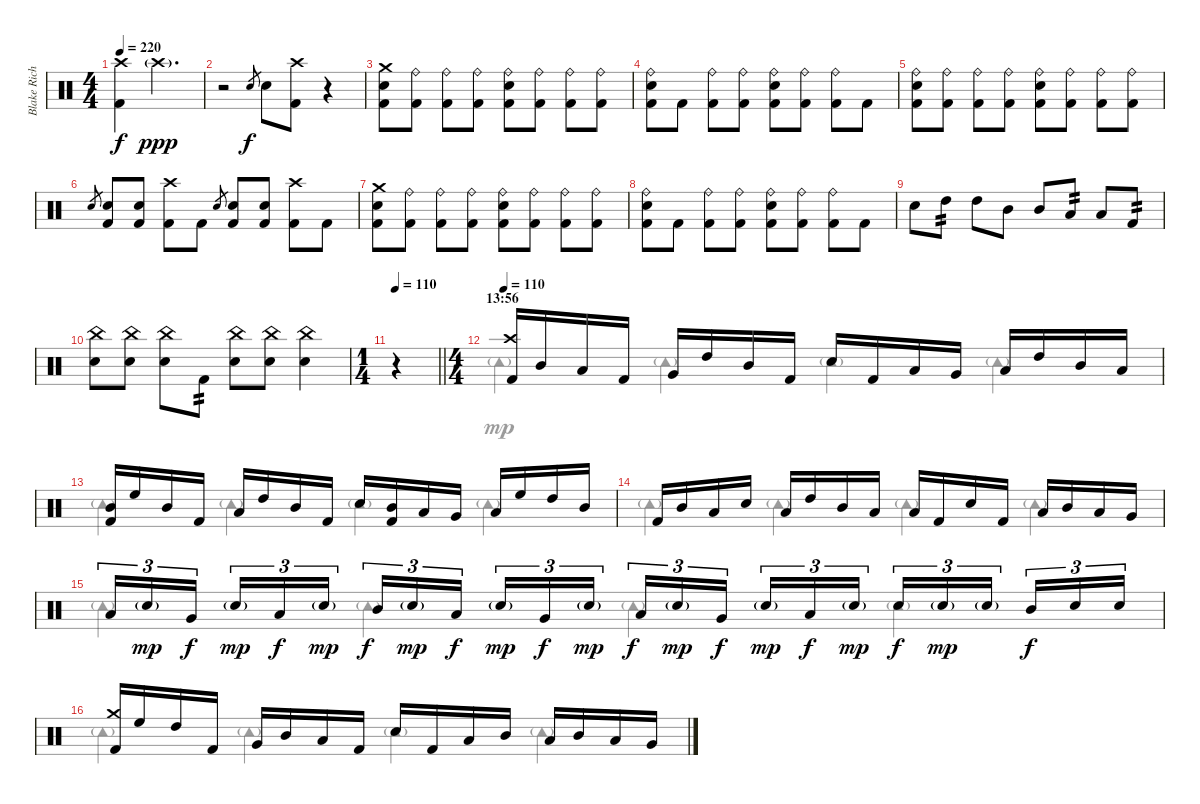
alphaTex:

\track ("Blake Richardson" "Blake Rich") {instrument percussion}
\staff {score}
\articulation defaults
\voice
\ts (4 4)
\tempo 220
\clef neutral
\ks c
("Crash high (hit)" "Kick (hit) 2").4{dy f} "Crash high (hit)"{g}.2{d dy ppp volume 0} |
r.2{volume 13} "Electric Snare (hit)".8{gr dy f} "Electric Snare (hit)".8 ("Crash high (hit)" "Kick (hit) 2").8 r.4 |
("Crash medium (hit)" "Electric Snare (hit)" "Kick (hit) 2").8 ("Ride (bell)" "Kick (hit) 2").8 ("Ride (bell)" "Kick (hit) 2").8 ("Ride (bell)" "Kick (hit) 2").8 ("Ride (bell)" "Electric Snare (hit)" "Kick (hit) 2").8 ("Ride (bell)" "Kick (hit) 2").8 ("Ride (bell)" "Kick (hit) 2").8 ("Ride (bell)" "Kick (hit) 2").8 |
("Ride (bell)" "Electric Snare (hit)" "Kick (hit) 2").8 "Kick (hit) 2".8 ("Ride (bell)" "Kick (hit) 2").8 ("Ride (bell)" "Kick (hit) 2").8 ("Ride (bell)" "Electric Snare (hit)" "Kick (hit) 2").8 ("Ride (bell)" "Kick (hit) 2").8 ("Ride (bell)" "Kick (hit) 2").8 "Kick (hit) 2".8 |
("Ride (bell)" "Electric Snare (hit)" "Kick (hit) 2").8 ("Ride (bell)" "Kick (hit) 2").8 ("Ride (bell)" "Kick (hit) 2").8 ("Ride (bell)" "Kick (hit) 2").8 ("Ride (bell)" "Electric Snare (hit)" "Kick (hit) 2").8 ("Ride (bell)" "Kick (hit) 2").8 ("Ride (bell)" "Kick (hit) 2").8 ("Ride (bell)" "Kick (hit) 2").8 |
"Electric Snare (hit)".8{gr} ("Electric Snare (hit)" "Kick (hit) 2").8 ("Electric Snare (hit)" "Kick (hit) 2").8 ("Crash high (hit)" "Kick (hit) 2").8 "Kick (hit) 2".8 "Electric Snare (hit)".8{gr} ("Electric Snare (hit)" "Kick (hit) 2").8 ("Electric Snare (hit)" "Kick (hit) 2").8 ("Crash high (hit)" "Kick (hit) 2").8 "Kick (hit) 2".8 |
("Crash medium (hit)" "Electric Snare (hit)" "Kick (hit) 2").8 ("Ride (bell)" "Kick (hit) 2").8 ("Ride (bell)" "Kick (hit) 2").8 ("Ride (bell)" "Kick (hit) 2").8 ("Ride (bell)" "Electric Snare (hit)" "Kick (hit) 2").8 ("Ride (bell)" "Kick (hit) 2").8 ("Ride (bell)" "Kick (hit) 2").8 ("Ride (bell)" "Kick (hit) 2").8 |
("Ride (bell)" "Electric Snare (hit)" "Kick (hit) 2").8 "Kick (hit) 2".8 ("Ride (bell)" "Kick (hit) 2").8 ("Ride (bell)" "Kick (hit) 2").8 ("Ride (bell)" "Electric Snare (hit)" "Kick (hit) 2").8 ("Ride (bell)" "Kick (hit) 2").8 ("Ride (bell)" "Kick (hit) 2").8 "Kick (hit) 2".8 |
"Electric Snare (hit)".8 "High Tom (hit)".8{tp 2} "High Tom (hit)".8 "Mid Tom (hit)".8 "Mid Tom (hit)".8 "Low Tom (hit)".8{tp 2} "Low Tom (hit)".8 "Kick (hit) 2".8{tp 2} |
("China (hit)" "Electric Snare (hit)").8 ("China (hit)" "Electric Snare (hit)").8 ("China (hit)" "Electric Snare (hit)").8 "Kick (hit) 2".8{tp 2} ("China (hit)" "Electric Snare (hit)").8 ("China (hit)" "Electric Snare (hit)").8 ("China (hit)" "Electric Snare (hit)").4 |
\ts (1 4)
\tempo 110
\barLineRight lightlight
r.4{volume 0} |
\ts (4 4)
\section ("" "13:56")
\tempo 110
("Crash high (hit)" "Kick (hit) 2").16{volume 10} "Mid Tom (hit)".16 "Low Floor Tom (hit)".16 "Kick (hit) 2".16 "Very Low Tom (hit)".16 "High Tom (hit)".16 "Mid Tom (hit)".16 "Kick (hit) 2".16 "Electric Snare (hit)".16 "Kick (hit) 2".16 "Low Floor Tom (hit)".16 "Very Low Tom (hit)".16 "Low Floor Tom (hit)".16 "High Tom (hit)".16 "Mid Tom (hit)".16 "Low Tom (hit)".16 |
("Mid Tom (hit)" "Kick (hit) 2").16 "High Floor Tom (hit)".16 "Mid Tom (hit)".16 "Kick (hit) 2".16 "Low Floor Tom (hit)".16 "High Tom (hit)".16 "Mid Tom (hit)".16 "Kick (hit) 2".16 "Electric Snare (hit)".16 ("Mid Tom (hit)" "Kick (hit) 2").16 "Low Tom (hit)".16 "Very Low Tom (hit)".16 "Low Floor Tom (hit)".16 "High Floor Tom (hit)".16 "High Tom (hit)".16 "Mid Tom (hit)".16 |
"Kick (hit) 2".16 "Mid Tom (hit)".16 "Low Tom (hit)".16 "Electric Snare (hit)".16 "Low Tom (hit)".16 "High Tom (hit)".16 "Mid Tom (hit)".16 "Low Tom (hit)".16 "Low Floor Tom (hit)".16 "Kick (hit) 2".16 "Electric Snare (hit)".16 "Kick (hit) 2".16 "Low Tom (hit)".16 "Mid Tom (hit)".16 "Low Tom (hit)".16 "Very Low Tom (hit)".16 |
"Low Floor Tom (hit)".16{tu (3 2)} "Electric Snare (hit)"{g}.16{tu (3 2) dy mp} "Very Low Tom (hit)".16{tu (3 2) dy f beam splitsecondary} "Electric Snare (hit)"{g}.16{tu (3 2) dy mp} "Low Tom (hit)".16{tu (3 2) dy f} "Electric Snare (hit)"{g}.16{tu (3 2) dy mp} "Mid Tom (hit)".16{tu (3 2) dy f} "Electric Snare (hit)"{g}.16{tu (3 2) dy mp} "Low Tom (hit)".16{tu (3 2) dy f beam splitsecondary} "Electric Snare (hit)"{g}.16{tu (3 2) dy mp} "Very Low Tom (hit)".16{tu (3 2) dy f} "Electric Snare (hit)"{g}.16{tu (3 2) dy mp} "Low Floor Tom (hit)".16{tu (3 2) dy f} "Electric Snare (hit)"{g}.16{tu (3 2) dy mp} "Very Low Tom (hit)".16{tu (3 2) dy f beam splitsecondary} "Electric Snare (hit)"{g}.16{tu (3 2) dy mp} "Low Tom (hit)".16{tu (3 2) dy f} "Electric Snare (hit)"{g}.16{tu (3 2) dy mp} "Electric Snare (hit)".16{tu (3 2) dy f} "Electric Snare (hit)"{g}.16{tu (3 2) dy mp} "Electric Snare (hit)"{g}.16{tu (3 2) beam splitsecondary} "Mid Tom (hit)".16{tu (3 2) dy f} "Electric Snare (hit)".16{tu (3 2)} "Electric Snare (hit)".16{tu (3 2)} |
("Crash medium (hit)" "Kick (hit) 2").16 "High Floor Tom (hit)".16 "High Tom (hit)".16 "Kick (hit) 2".16 "Very Low Tom (hit)".16 "Mid Tom (hit)".16 "Low Tom (hit)".16 "Kick (hit) 2".16 "Electric Snare (hit)".16 "Kick (hit) 2".16 "Low Tom (hit)".16 "Mid Tom (hit)".16 "Low Floor Tom (hit)".16 "Mid Tom (hit)".16 "Low Tom (hit)".16 "Very Low Tom (hit)".16
\voice
\clef neutral
\ottava regular
\simile none
\ks c
|
|
|
|
|
|
|
|
|
|
\barLineRight lightlight
|
"Tambourine (hit)"{g}.4{dy mp} "Tambourine (hit)"{g}.4 "Tambourine (hit)"{g}.4 "Tambourine (hit)"{g}.4 |
"Tambourine (hit)"{g}.4 "Tambourine (hit)"{g}.4 "Tambourine (hit)"{g}.4 "Tambourine (hit)"{g}.4 |
"Tambourine (hit)"{g}.4 "Tambourine (hit)"{g}.4 "Tambourine (hit)"{g}.4 "Tambourine (hit)"{g}.4 |
"Tambourine (hit)"{g}.4 "Tambourine (hit)"{g}.4 "Tambourine (hit)"{g}.4 "Tambourine (hit)"{g}.4 |
"Tambourine (hit)"{g}.4 "Tambourine (hit)"{g}.4 "Tambourine (hit)"{g}.4 "Tambourine (hit)"{g}.4
